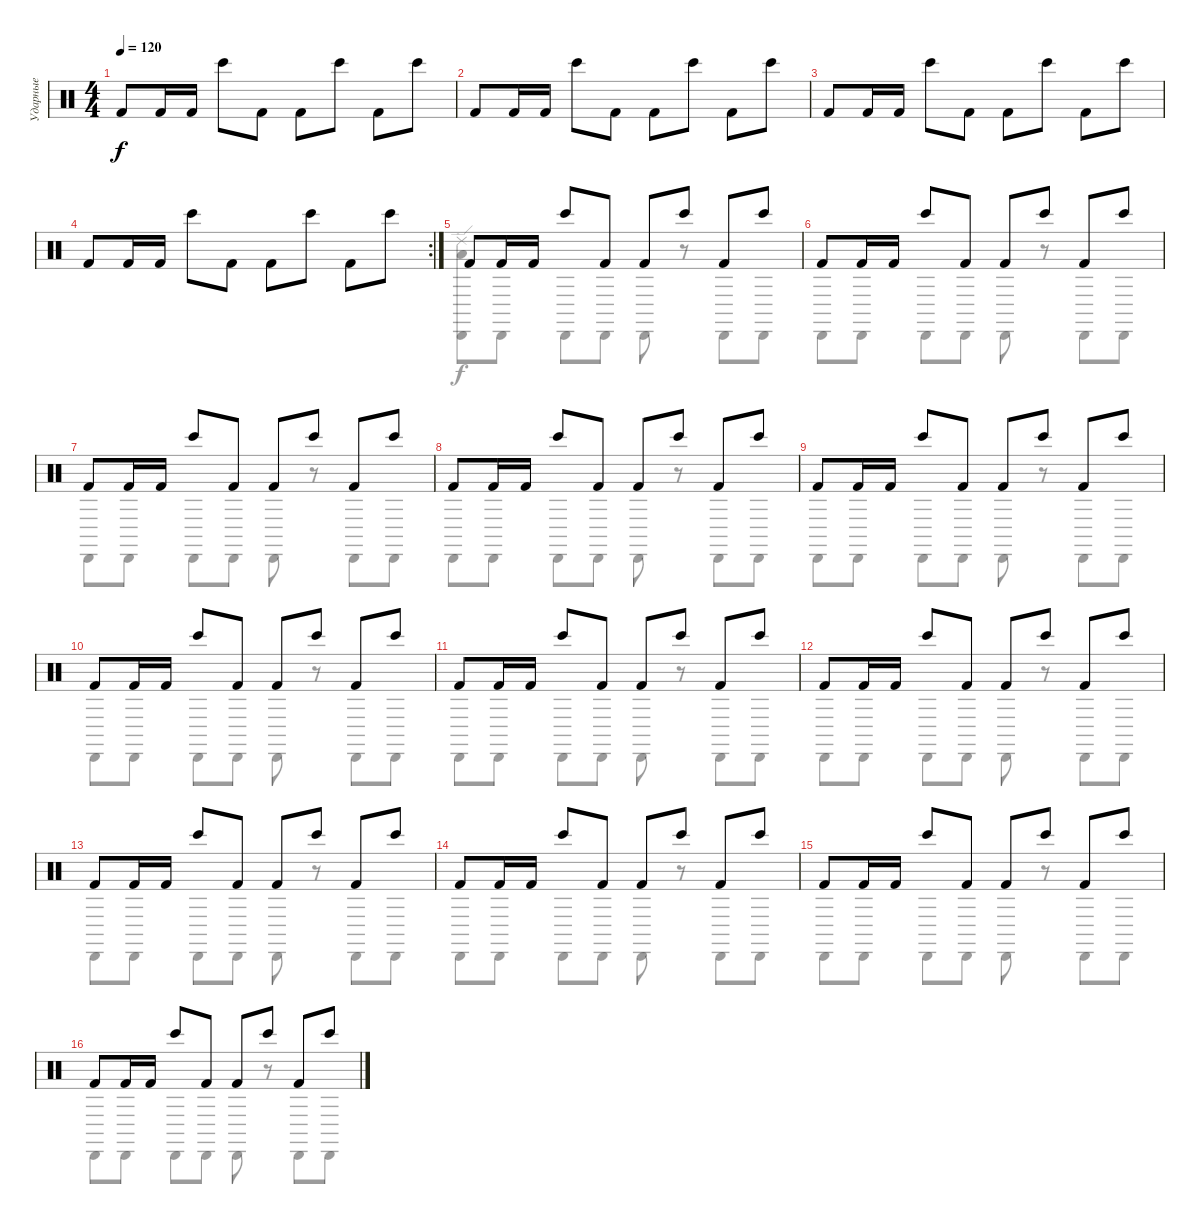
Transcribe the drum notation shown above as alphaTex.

\track ("Ударные" "Ударные") {instrument percussion}
\staff {score}
\articulation defaults
\voice
\ts (4 4)
\tempo 120
\clef neutral
\ks c "Kick (hit) 2".8{dy f} "Kick (hit) 2".16 "Kick (hit) 2".16 "Bongo High (hit)".8 "Kick (hit) 2".8 "Kick (hit) 2".8 "Bongo High (hit)".8 "Kick (hit) 2".8 "Bongo High (hit)".8
|
"Kick (hit) 2".8 "Kick (hit) 2".16 "Kick (hit) 2".16 "Bongo High (hit)".8 "Kick (hit) 2".8 "Kick (hit) 2".8 "Bongo High (hit)".8 "Kick (hit) 2".8 "Bongo High (hit)".8 |
"Kick (hit) 2".8 "Kick (hit) 2".16 "Kick (hit) 2".16 "Bongo High (hit)".8 "Kick (hit) 2".8 "Kick (hit) 2".8 "Bongo High (hit)".8 "Kick (hit) 2".8 "Bongo High (hit)".8 |
\rc 2 "Kick (hit) 2".8 "Kick (hit) 2".16 "Kick (hit) 2".16 "Bongo High (hit)".8 "Kick (hit) 2".8 "Kick (hit) 2".8 "Bongo High (hit)".8 "Kick (hit) 2".8 "Bongo High (hit)".8
|
"Kick (hit) 2".8 "Kick (hit) 2".16 "Kick (hit) 2".16 "Bongo High (hit)".8 "Kick (hit) 2".8 "Kick (hit) 2".8 "Bongo High (hit)".8 "Kick (hit) 2".8 "Bongo High (hit)".8 |
"Kick (hit) 2".8 "Kick (hit) 2".16 "Kick (hit) 2".16 "Bongo High (hit)".8 "Kick (hit) 2".8 "Kick (hit) 2".8 "Bongo High (hit)".8 "Kick (hit) 2".8 "Bongo High (hit)".8 |
"Kick (hit) 2".8 "Kick (hit) 2".16 "Kick (hit) 2".16 "Bongo High (hit)".8 "Kick (hit) 2".8 "Kick (hit) 2".8 "Bongo High (hit)".8 "Kick (hit) 2".8 "Bongo High (hit)".8 |
"Kick (hit) 2".8 "Kick (hit) 2".16 "Kick (hit) 2".16 "Bongo High (hit)".8 "Kick (hit) 2".8 "Kick (hit) 2".8 "Bongo High (hit)".8 "Kick (hit) 2".8 "Bongo High (hit)".8 |
"Kick (hit) 2".8 "Kick (hit) 2".16 "Kick (hit) 2".16 "Bongo High (hit)".8 "Kick (hit) 2".8 "Kick (hit) 2".8 "Bongo High (hit)".8 "Kick (hit) 2".8 "Bongo High (hit)".8 |
"Kick (hit) 2".8 "Kick (hit) 2".16 "Kick (hit) 2".16 "Bongo High (hit)".8 "Kick (hit) 2".8 "Kick (hit) 2".8 "Bongo High (hit)".8 "Kick (hit) 2".8 "Bongo High (hit)".8 |
"Kick (hit) 2".8 "Kick (hit) 2".16 "Kick (hit) 2".16 "Bongo High (hit)".8 "Kick (hit) 2".8 "Kick (hit) 2".8 "Bongo High (hit)".8 "Kick (hit) 2".8 "Bongo High (hit)".8 |
"Kick (hit) 2".8 "Kick (hit) 2".16 "Kick (hit) 2".16 "Bongo High (hit)".8 "Kick (hit) 2".8 "Kick (hit) 2".8 "Bongo High (hit)".8 "Kick (hit) 2".8 "Bongo High (hit)".8 |
"Kick (hit) 2".8 "Kick (hit) 2".16 "Kick (hit) 2".16 "Bongo High (hit)".8 "Kick (hit) 2".8 "Kick (hit) 2".8 "Bongo High (hit)".8 "Kick (hit) 2".8 "Bongo High (hit)".8 |
"Kick (hit) 2".8 "Kick (hit) 2".16 "Kick (hit) 2".16 "Bongo High (hit)".8 "Kick (hit) 2".8 "Kick (hit) 2".8 "Bongo High (hit)".8 "Kick (hit) 2".8 "Bongo High (hit)".8 |
"Kick (hit) 2".8 "Kick (hit) 2".16 "Kick (hit) 2".16 "Bongo High (hit)".8 "Kick (hit) 2".8 "Kick (hit) 2".8 "Bongo High (hit)".8 "Kick (hit) 2".8 "Bongo High (hit)".8 |
"Kick (hit) 2".8 "Kick (hit) 2".16 "Kick (hit) 2".16 "Bongo High (hit)".8 "Kick (hit) 2".8 "Kick (hit) 2".8 "Bongo High (hit)".8 "Kick (hit) 2".8 "Bongo High (hit)".8
\voice
\clef neutral
\ottava regular
\simile none
\ks c
|
|
|
|
("Cabasa (hit)" "Ride (edge) 2" "Low Tom (hit)").8 "Cabasa (hit)".8 "Cabasa (hit)".8 "Cabasa (hit)".8 "Cabasa (hit)".8 r.8 "Cabasa (hit)".8 "Cabasa (hit)".8 |
"Cabasa (hit)".8 "Cabasa (hit)".8 "Cabasa (hit)".8 "Cabasa (hit)".8 "Cabasa (hit)".8 r.8 "Cabasa (hit)".8 "Cabasa (hit)".8 |
"Cabasa (hit)".8 "Cabasa (hit)".8 "Cabasa (hit)".8 "Cabasa (hit)".8 "Cabasa (hit)".8 r.8 "Cabasa (hit)".8 "Cabasa (hit)".8 |
"Cabasa (hit)".8 "Cabasa (hit)".8 "Cabasa (hit)".8 "Cabasa (hit)".8 "Cabasa (hit)".8 r.8 "Cabasa (hit)".8 "Cabasa (hit)".8 |
"Cabasa (hit)".8 "Cabasa (hit)".8 "Cabasa (hit)".8 "Cabasa (hit)".8 "Cabasa (hit)".8 r.8 "Cabasa (hit)".8 "Cabasa (hit)".8 |
"Cabasa (hit)".8 "Cabasa (hit)".8 "Cabasa (hit)".8 "Cabasa (hit)".8 "Cabasa (hit)".8 r.8 "Cabasa (hit)".8 "Cabasa (hit)".8 |
"Cabasa (hit)".8 "Cabasa (hit)".8 "Cabasa (hit)".8 "Cabasa (hit)".8 "Cabasa (hit)".8 r.8 "Cabasa (hit)".8 "Cabasa (hit)".8 |
"Cabasa (hit)".8 "Cabasa (hit)".8 "Cabasa (hit)".8 "Cabasa (hit)".8 "Cabasa (hit)".8 r.8 "Cabasa (hit)".8 "Cabasa (hit)".8 |
"Cabasa (hit)".8 "Cabasa (hit)".8 "Cabasa (hit)".8 "Cabasa (hit)".8 "Cabasa (hit)".8 r.8 "Cabasa (hit)".8 "Cabasa (hit)".8 |
"Cabasa (hit)".8 "Cabasa (hit)".8 "Cabasa (hit)".8 "Cabasa (hit)".8 "Cabasa (hit)".8 r.8 "Cabasa (hit)".8 "Cabasa (hit)".8 |
"Cabasa (hit)".8 "Cabasa (hit)".8 "Cabasa (hit)".8 "Cabasa (hit)".8 "Cabasa (hit)".8 r.8 "Cabasa (hit)".8 "Cabasa (hit)".8 |
"Cabasa (hit)".8 "Cabasa (hit)".8 "Cabasa (hit)".8 "Cabasa (hit)".8 "Cabasa (hit)".8 r.8 "Cabasa (hit)".8 "Cabasa (hit)".8
